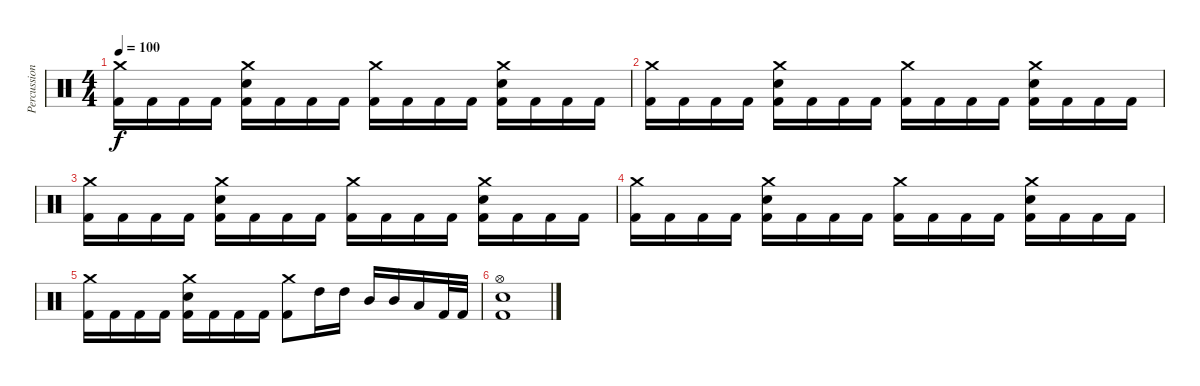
\track ("Percussion" "Percussion") {instrument percussion}
\staff {score}
\articulation defaults
\ts (4 4)
\tempo 100
\clef neutral
\ks aminor
("Crash medium (hit)" "Kick (hit) 2").16{dy f} "Kick (hit) 2".16 "Kick (hit) 2".16 "Kick (hit) 2".16 ("Crash medium (hit)" "Snare (hit) 2" "Kick (hit) 2").16 "Kick (hit) 2".16 "Kick (hit) 2".16 "Kick (hit) 2".16 ("Crash medium (hit)" "Kick (hit) 2").16 "Kick (hit) 2".16 "Kick (hit) 2".16 "Kick (hit) 2".16 ("Crash medium (hit)" "Snare (hit) 2" "Kick (hit) 2").16 "Kick (hit) 2".16 "Kick (hit) 2".16 "Kick (hit) 2".16 |
("Crash medium (hit)" "Kick (hit) 2").16 "Kick (hit) 2".16 "Kick (hit) 2".16 "Kick (hit) 2".16 ("Crash medium (hit)" "Snare (hit) 2" "Kick (hit) 2").16 "Kick (hit) 2".16 "Kick (hit) 2".16 "Kick (hit) 2".16 ("Crash medium (hit)" "Kick (hit) 2").16 "Kick (hit) 2".16 "Kick (hit) 2".16 "Kick (hit) 2".16 ("Crash medium (hit)" "Snare (hit) 2" "Kick (hit) 2").16 "Kick (hit) 2".16 "Kick (hit) 2".16 "Kick (hit) 2".16 |
("Crash medium (hit)" "Kick (hit) 2").16 "Kick (hit) 2".16 "Kick (hit) 2".16 "Kick (hit) 2".16 ("Crash medium (hit)" "Snare (hit) 2" "Kick (hit) 2").16 "Kick (hit) 2".16 "Kick (hit) 2".16 "Kick (hit) 2".16 ("Crash medium (hit)" "Kick (hit) 2").16 "Kick (hit) 2".16 "Kick (hit) 2".16 "Kick (hit) 2".16 ("Crash medium (hit)" "Snare (hit) 2" "Kick (hit) 2").16 "Kick (hit) 2".16 "Kick (hit) 2".16 "Kick (hit) 2".16 |
("Crash medium (hit)" "Kick (hit) 2").16 "Kick (hit) 2".16 "Kick (hit) 2".16 "Kick (hit) 2".16 ("Crash medium (hit)" "Snare (hit) 2" "Kick (hit) 2").16 "Kick (hit) 2".16 "Kick (hit) 2".16 "Kick (hit) 2".16 ("Crash medium (hit)" "Kick (hit) 2").16 "Kick (hit) 2".16 "Kick (hit) 2".16 "Kick (hit) 2".16 ("Crash medium (hit)" "Snare (hit) 2" "Kick (hit) 2").16 "Kick (hit) 2".16 "Kick (hit) 2".16 "Kick (hit) 2".16 |
("Crash medium (hit)" "Kick (hit) 2").16 "Kick (hit) 2".16 "Kick (hit) 2".16 "Kick (hit) 2".16 ("Crash medium (hit)" "Snare (hit) 2" "Kick (hit) 2").16 "Kick (hit) 2".16 "Kick (hit) 2".16 "Kick (hit) 2".16 ("Crash medium (hit)" "Kick (hit) 2").8 "High Tom (hit)".16 "High Tom (hit)".16 "Mid Tom (hit)".16 "Mid Tom (hit)".16 "Low Tom (hit)".16 "Kick (hit) 2".32 "Kick (hit) 2".32 |
("Hi-Hat (open)" "Snare (hit) 2" "Kick (hit) 2").1
